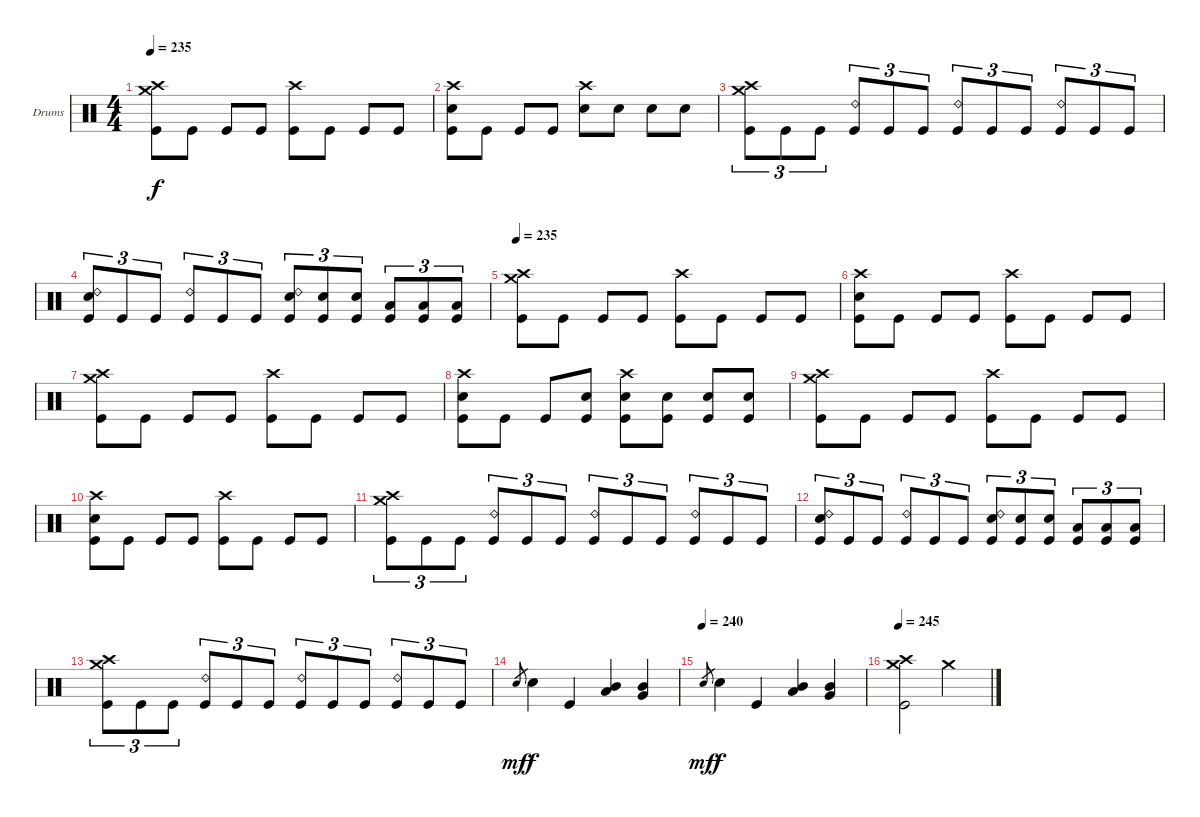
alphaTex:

\bracketExtendMode groupsimilarinstruments
\firstSystemTrackNameOrientation horizontal
\otherSystemsTrackNameOrientation horizontal
\track ("Drumkit" "Drums") {instrument percussion}
\staff {score}
\articulation defaults
\ts (4 4)
\tempo 235
\clef neutral
\ks c
("Crash high (hit)" "Crash medium (hit)" "Kick (hit)").8{dy f} "Kick (hit)".8 "Kick (hit)".8 "Kick (hit)".8 ("Crash high (hit)" "Kick (hit)").8 "Kick (hit)".8 "Kick (hit)".8 "Kick (hit)".8 |
("Crash high (hit)" "Snare (hit) 2" "Kick (hit)").8 "Kick (hit)".8 "Kick (hit)".8 "Kick (hit)".8 ("Crash high (hit)" "Snare (hit) 2").8 "Snare (hit) 2".8 "Snare (hit) 2".8 "Snare (hit) 2".8 |
("Crash high (hit)" "Crash medium (hit)" "Kick (hit)").8{tu (3 2)} "Kick (hit)".8{tu (3 2)} "Kick (hit)".8{tu (3 2)} ("Ride (bell) 2" "Kick (hit)").8{tu (3 2)} "Kick (hit)".8{tu (3 2)} "Kick (hit)".8{tu (3 2)} ("Ride (bell) 2" "Kick (hit)").8{tu (3 2)} "Kick (hit)".8{tu (3 2)} "Kick (hit)".8{tu (3 2)} ("Ride (bell) 2" "Kick (hit)").8{tu (3 2)} "Kick (hit)".8{tu (3 2)} "Kick (hit)".8{tu (3 2)} |
("Ride (bell) 2" "Snare (hit) 2" "Kick (hit)").8{tu (3 2)} "Kick (hit)".8{tu (3 2)} "Kick (hit)".8{tu (3 2)} ("Ride (bell) 2" "Kick (hit)").8{tu (3 2)} "Kick (hit)".8{tu (3 2)} "Kick (hit)".8{tu (3 2)} ("Ride (bell) 2" "Snare (hit) 2" "Kick (hit)").8{tu (3 2)} ("Snare (hit) 2" "Kick (hit)").8{tu (3 2)} ("Snare (hit) 2" "Kick (hit)").8{tu (3 2)} ("Low Tom (hit)" "Kick (hit)").8{tu (3 2)} ("Low Tom (hit)" "Kick (hit)").8{tu (3 2)} ("Low Tom (hit)" "Kick (hit)").8{tu (3 2)} |
\tempo 235
("Crash high (hit)" "Crash medium (hit)" "Kick (hit)").8 "Kick (hit)".8 "Kick (hit)".8 "Kick (hit)".8 ("Crash high (hit)" "Kick (hit)").8 "Kick (hit)".8 "Kick (hit)".8 "Kick (hit)".8 |
("Crash high (hit)" "Snare (hit) 2" "Kick (hit)").8 "Kick (hit)".8 "Kick (hit)".8 "Kick (hit)".8 ("Crash high (hit)" "Kick (hit)").8 "Kick (hit)".8 "Kick (hit)".8 "Kick (hit)".8 |
("Crash high (hit)" "Crash medium (hit)" "Kick (hit)").8 "Kick (hit)".8 "Kick (hit)".8 "Kick (hit)".8 ("Crash high (hit)" "Kick (hit)").8 "Kick (hit)".8 "Kick (hit)".8 "Kick (hit)".8 |
("Crash high (hit)" "Snare (hit) 2" "Kick (hit)").8 "Kick (hit)".8 "Kick (hit)".8 ("Snare (hit) 2" "Kick (hit)").8 ("Crash high (hit)" "Snare (hit) 2" "Kick (hit)").8 ("Snare (hit) 2" "Kick (hit)").8 ("Snare (hit) 2" "Kick (hit)").8 ("Snare (hit) 2" "Kick (hit)").8 |
("Crash high (hit)" "Crash medium (hit)" "Kick (hit)").8 "Kick (hit)".8 "Kick (hit)".8 "Kick (hit)".8 ("Crash high (hit)" "Kick (hit)").8 "Kick (hit)".8 "Kick (hit)".8 "Kick (hit)".8 |
("Crash high (hit)" "Snare (hit) 2" "Kick (hit)").8 "Kick (hit)".8 "Kick (hit)".8 "Kick (hit)".8 ("Crash high (hit)" "Kick (hit)").8 "Kick (hit)".8 "Kick (hit)".8 "Kick (hit)".8 |
("Crash high (hit)" "Crash medium (hit)" "Kick (hit)").8{tu (3 2)} "Kick (hit)".8{tu (3 2)} "Kick (hit)".8{tu (3 2)} ("Ride (bell) 2" "Kick (hit)").8{tu (3 2)} "Kick (hit)".8{tu (3 2)} "Kick (hit)".8{tu (3 2)} ("Ride (bell) 2" "Kick (hit)").8{tu (3 2)} "Kick (hit)".8{tu (3 2)} "Kick (hit)".8{tu (3 2)} ("Ride (bell) 2" "Kick (hit)").8{tu (3 2)} "Kick (hit)".8{tu (3 2)} "Kick (hit)".8{tu (3 2)} |
("Ride (bell) 2" "Snare (hit) 2" "Kick (hit)").8{tu (3 2)} "Kick (hit)".8{tu (3 2)} "Kick (hit)".8{tu (3 2)} ("Ride (bell) 2" "Kick (hit)").8{tu (3 2)} "Kick (hit)".8{tu (3 2)} "Kick (hit)".8{tu (3 2)} ("Ride (bell) 2" "Snare (hit) 2" "Kick (hit)").8{tu (3 2)} ("Snare (hit) 2" "Kick (hit)").8{tu (3 2)} ("Snare (hit) 2" "Kick (hit)").8{tu (3 2)} ("Low Tom (hit)" "Kick (hit)").8{tu (3 2)} ("Low Tom (hit)" "Kick (hit)").8{tu (3 2)} ("Low Tom (hit)" "Kick (hit)").8{tu (3 2)} |
("Crash high (hit)" "Crash medium (hit)" "Kick (hit)").8{tu (3 2)} "Kick (hit)".8{tu (3 2)} "Kick (hit)".8{tu (3 2)} ("Ride (bell) 2" "Kick (hit)").8{tu (3 2)} "Kick (hit)".8{tu (3 2)} "Kick (hit)".8{tu (3 2)} ("Ride (bell) 2" "Kick (hit)").8{tu (3 2)} "Kick (hit)".8{tu (3 2)} "Kick (hit)".8{tu (3 2)} ("Ride (bell) 2" "Kick (hit)").8{tu (3 2)} "Kick (hit)".8{tu (3 2)} "Kick (hit)".8{tu (3 2)} |
"Snare (hit) 2".8{gr dy mf} "Snare (hit) 2".4{dy f} "Kick (hit)".4 ("Mid Tom (hit)" "Low Tom (hit)").4 ("Very Low Tom (hit)" "Mid Tom (hit)").4 |
\tempo (240)
"Snare (hit) 2".8{gr dy mf} "Snare (hit) 2".4{dy f} "Kick (hit)".4 ("Mid Tom (hit)" "Low Tom (hit)").4 ("Very Low Tom (hit)" "Mid Tom (hit)").4 |
\tempo 245
("Crash high (hit)" "Crash medium (hit)" "Kick (hit)").2 "Crash medium (hit)".2
